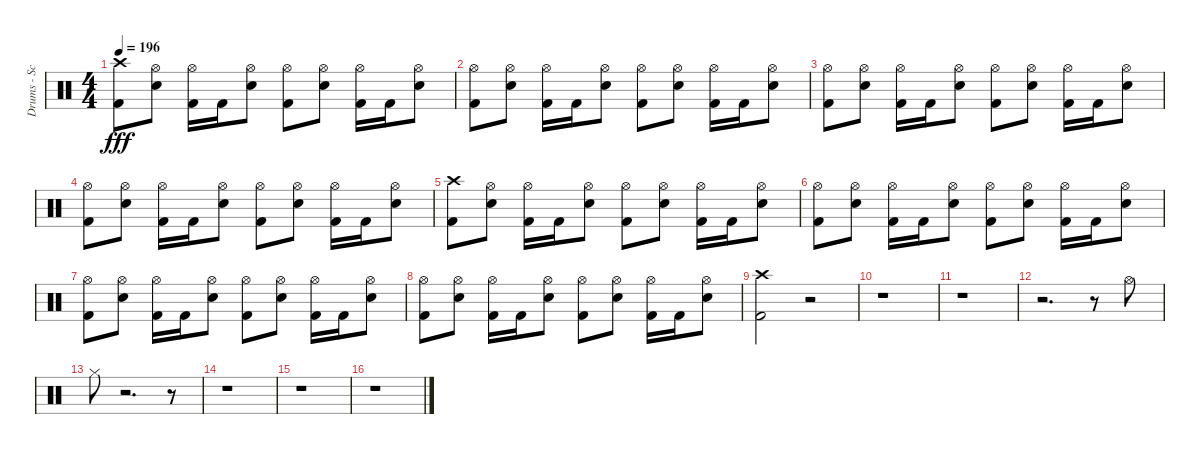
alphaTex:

\track ("Drums - Scott" "Drums - Sc") {instrument percussion}
\staff {score}
\articulation defaults
\ts (4 4)
\tempo 196
\clef neutral
\ks c
("Crash high (hit)" "Kick (hit) 2").8{dy fff} ("Hi-Hat (open)" "Electric Snare (hit)").8 ("Hi-Hat (open)" "Kick (hit) 2").16 "Kick (hit) 2".16 ("Hi-Hat (open)" "Electric Snare (hit)").8 ("Hi-Hat (open)" "Kick (hit) 2").8 ("Hi-Hat (open)" "Electric Snare (hit)").8 ("Hi-Hat (open)" "Kick (hit) 2").16 "Kick (hit) 2".16 ("Hi-Hat (open)" "Electric Snare (hit)").8 |
("Hi-Hat (open)" "Kick (hit) 2").8 ("Hi-Hat (open)" "Electric Snare (hit)").8 ("Hi-Hat (open)" "Kick (hit) 2").16 "Kick (hit) 2".16 ("Hi-Hat (open)" "Electric Snare (hit)").8 ("Hi-Hat (open)" "Kick (hit) 2").8 ("Hi-Hat (open)" "Electric Snare (hit)").8 ("Hi-Hat (open)" "Kick (hit) 2").16 "Kick (hit) 2".16 ("Hi-Hat (open)" "Electric Snare (hit)").8 |
("Hi-Hat (open)" "Kick (hit) 2").8 ("Hi-Hat (open)" "Electric Snare (hit)").8 ("Hi-Hat (open)" "Kick (hit) 2").16 "Kick (hit) 2".16 ("Hi-Hat (open)" "Electric Snare (hit)").8 ("Hi-Hat (open)" "Kick (hit) 2").8 ("Hi-Hat (open)" "Electric Snare (hit)").8 ("Hi-Hat (open)" "Kick (hit) 2").16 "Kick (hit) 2".16 ("Hi-Hat (open)" "Electric Snare (hit)").8 |
("Hi-Hat (open)" "Kick (hit) 2").8 ("Hi-Hat (open)" "Electric Snare (hit)").8 ("Hi-Hat (open)" "Kick (hit) 2").16 "Kick (hit) 2".16 ("Hi-Hat (open)" "Electric Snare (hit)").8 ("Hi-Hat (open)" "Kick (hit) 2").8 ("Hi-Hat (open)" "Electric Snare (hit)").8 ("Hi-Hat (open)" "Kick (hit) 2").16 "Kick (hit) 2".16 ("Hi-Hat (open)" "Electric Snare (hit)").8 |
("Crash high (hit)" "Kick (hit) 2").8 ("Hi-Hat (open)" "Electric Snare (hit)").8 ("Hi-Hat (open)" "Kick (hit) 2").16 "Kick (hit) 2".16 ("Hi-Hat (open)" "Electric Snare (hit)").8 ("Hi-Hat (open)" "Kick (hit) 2").8 ("Hi-Hat (open)" "Electric Snare (hit)").8 ("Hi-Hat (open)" "Kick (hit) 2").16 "Kick (hit) 2".16 ("Hi-Hat (open)" "Electric Snare (hit)").8 |
("Hi-Hat (open)" "Kick (hit) 2").8 ("Hi-Hat (open)" "Electric Snare (hit)").8 ("Hi-Hat (open)" "Kick (hit) 2").16 "Kick (hit) 2".16 ("Hi-Hat (open)" "Electric Snare (hit)").8 ("Hi-Hat (open)" "Kick (hit) 2").8 ("Hi-Hat (open)" "Electric Snare (hit)").8 ("Hi-Hat (open)" "Kick (hit) 2").16 "Kick (hit) 2".16 ("Hi-Hat (open)" "Electric Snare (hit)").8 |
("Hi-Hat (open)" "Kick (hit) 2").8 ("Hi-Hat (open)" "Electric Snare (hit)").8 ("Hi-Hat (open)" "Kick (hit) 2").16 "Kick (hit) 2".16 ("Hi-Hat (open)" "Electric Snare (hit)").8 ("Hi-Hat (open)" "Kick (hit) 2").8 ("Hi-Hat (open)" "Electric Snare (hit)").8 ("Hi-Hat (open)" "Kick (hit) 2").16 "Kick (hit) 2".16 ("Hi-Hat (open)" "Electric Snare (hit)").8 |
("Hi-Hat (open)" "Kick (hit) 2").8 ("Hi-Hat (open)" "Electric Snare (hit)").8 ("Hi-Hat (open)" "Kick (hit) 2").16 "Kick (hit) 2".16 ("Hi-Hat (open)" "Electric Snare (hit)").8 ("Hi-Hat (open)" "Kick (hit) 2").8 ("Hi-Hat (open)" "Electric Snare (hit)").8 ("Hi-Hat (open)" "Kick (hit) 2").16 "Kick (hit) 2".16 ("Hi-Hat (open)" "Electric Snare (hit)").8 |
("Crash high (hit)" "Kick (hit) 2").2 r.2 |
r.1 |
r.1 |
r.2{d} r.8 "Hi-Hat (open)".8 |
"Hi-Hat (closed)".8 r.2{d} r.8 |
r.1 |
r.1 |
r.1
